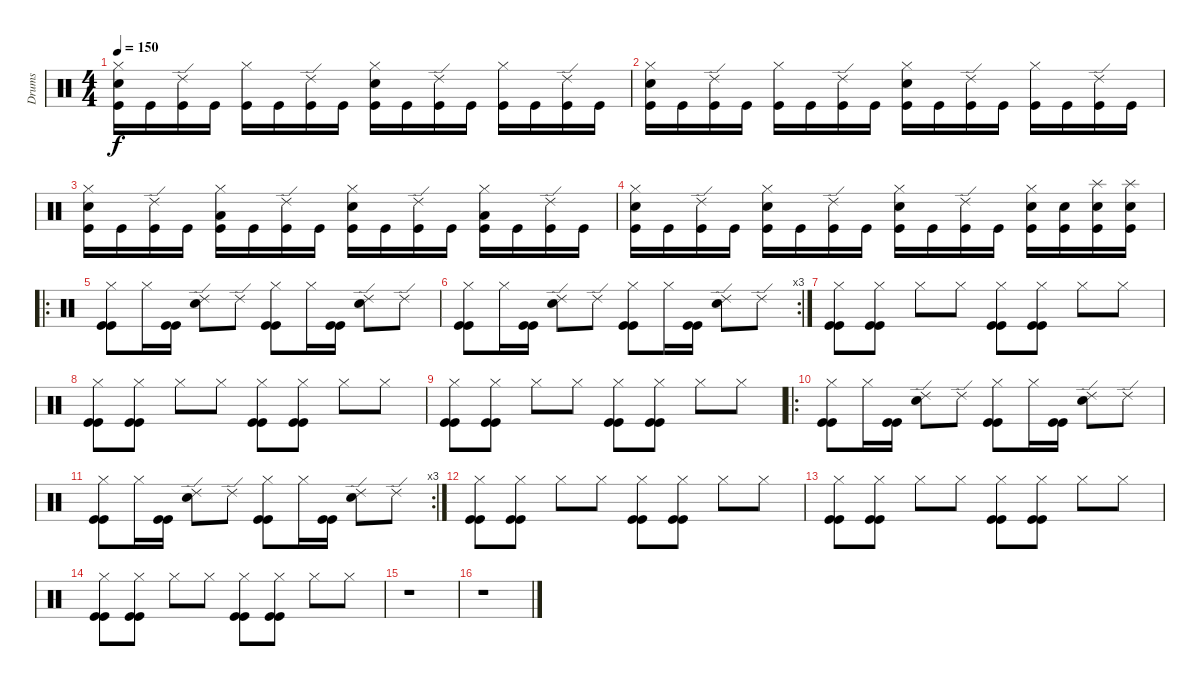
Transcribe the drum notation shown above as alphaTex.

\track ("Drums" "Drums") {instrument percussion}
\staff {score}
\articulation defaults
\ts (4 4)
\tempo 150
\clef neutral
\ks c
("Hi-Hat (closed)" "Snare (hit) 2" "Kick (hit)").16{dy f} "Kick (hit)".16 ("Ride (edge) 2" "Kick (hit)").16 "Kick (hit)".16 ("Hi-Hat (closed)" "Kick (hit)").16 "Kick (hit)".16 ("Ride (edge) 2" "Kick (hit)").16 "Kick (hit)".16 ("Hi-Hat (closed)" "Snare (hit) 2" "Kick (hit)").16 "Kick (hit)".16 ("Ride (edge) 2" "Kick (hit)").16 "Kick (hit)".16 ("Hi-Hat (closed)" "Kick (hit)").16 "Kick (hit)".16 ("Ride (edge) 2" "Kick (hit)").16 "Kick (hit)".16 |
("Hi-Hat (closed)" "Snare (hit) 2" "Kick (hit)").16 "Kick (hit)".16 ("Ride (edge) 2" "Kick (hit)").16 "Kick (hit)".16 ("Hi-Hat (closed)" "Kick (hit)").16 "Kick (hit)".16 ("Ride (edge) 2" "Kick (hit)").16 "Kick (hit)".16 ("Hi-Hat (closed)" "Snare (hit) 2" "Kick (hit)").16 "Kick (hit)".16 ("Ride (edge) 2" "Kick (hit)").16 "Kick (hit)".16 ("Hi-Hat (closed)" "Kick (hit)").16 "Kick (hit)".16 ("Ride (edge) 2" "Kick (hit)").16 "Kick (hit)".16 |
("Hi-Hat (closed)" "Snare (hit) 2" "Kick (hit)").16 "Kick (hit)".16 ("Ride (edge) 2" "Kick (hit)").16 "Kick (hit)".16 ("Hi-Hat (closed)" "Low Tom (hit)" "Kick (hit)").16 "Kick (hit)".16 ("Ride (edge) 2" "Kick (hit)").16 "Kick (hit)".16 ("Hi-Hat (closed)" "Snare (hit) 2" "Kick (hit)").16 "Kick (hit)".16 ("Ride (edge) 2" "Kick (hit)").16 "Kick (hit)".16 ("Hi-Hat (closed)" "Low Tom (hit)" "Kick (hit)").16 "Kick (hit)".16 ("Ride (edge) 2" "Kick (hit)").16 "Kick (hit)".16 |
("Hi-Hat (closed)" "Snare (hit) 2" "Kick (hit)").16 "Kick (hit)".16 ("Ride (edge) 2" "Kick (hit)").16 "Kick (hit)".16 ("Hi-Hat (closed)" "Snare (hit) 2" "Kick (hit)").16 "Kick (hit)".16 ("Ride (edge) 2" "Kick (hit)").16 "Kick (hit)".16 ("Hi-Hat (closed)" "Snare (hit) 2" "Kick (hit)").16 "Kick (hit)".16 ("Ride (edge) 2" "Kick (hit)").16 "Kick (hit)".16 ("Hi-Hat (closed)" "Snare (hit) 2" "Kick (hit)").16 ("Snare (hit) 2" "Kick (hit)").16 ("Splash (hit)" "Snare (hit) 2" "Kick (hit)").16 ("Splash (hit)" "Snare (hit) 2" "Kick (hit)").16 |
\ro
("Hi-Hat (closed)" "Kick (hit)" "Kick (hit)").8 "Hi-Hat (closed)".16 ("Kick (hit)" "Kick (hit)").16 ("Ride (edge) 2" "Snare (hit) 2").8 "Ride (edge) 2".8 ("Hi-Hat (closed)" "Kick (hit)" "Kick (hit)").8 "Hi-Hat (closed)".16 ("Kick (hit)" "Kick (hit)").16 ("Ride (edge) 2" "Snare (hit) 2").8 "Ride (edge) 2".8 |
\rc 3
("Hi-Hat (closed)" "Kick (hit)" "Kick (hit)").8 "Hi-Hat (closed)".16 ("Kick (hit)" "Kick (hit)").16 ("Ride (edge) 2" "Snare (hit) 2").8 "Ride (edge) 2".8 ("Hi-Hat (closed)" "Kick (hit)" "Kick (hit)").8 "Hi-Hat (closed)".16 ("Kick (hit)" "Kick (hit)").16 ("Ride (edge) 2" "Snare (hit) 2").8 "Ride (edge) 2".8 |
("Hi-Hat (closed)" "Kick (hit)" "Kick (hit)").8 ("Hi-Hat (closed)" "Kick (hit)" "Kick (hit)").8 "Hi-Hat (closed)".8 "Hi-Hat (closed)".8 ("Hi-Hat (closed)" "Kick (hit)" "Kick (hit)").8 ("Hi-Hat (closed)" "Kick (hit)" "Kick (hit)").8 "Hi-Hat (closed)".8 "Hi-Hat (closed)".8 |
("Hi-Hat (closed)" "Kick (hit)" "Kick (hit)").8 ("Hi-Hat (closed)" "Kick (hit)" "Kick (hit)").8 "Hi-Hat (closed)".8 "Hi-Hat (closed)".8 ("Hi-Hat (closed)" "Kick (hit)" "Kick (hit)").8 ("Hi-Hat (closed)" "Kick (hit)" "Kick (hit)").8 "Hi-Hat (closed)".8 "Hi-Hat (closed)".8 |
("Hi-Hat (closed)" "Kick (hit)" "Kick (hit)").8 ("Hi-Hat (closed)" "Kick (hit)" "Kick (hit)").8 "Hi-Hat (closed)".8 "Hi-Hat (closed)".8 ("Hi-Hat (closed)" "Kick (hit)" "Kick (hit)").8 ("Hi-Hat (closed)" "Kick (hit)" "Kick (hit)").8 "Hi-Hat (closed)".8 "Hi-Hat (closed)".8 |
\ro
("Hi-Hat (closed)" "Kick (hit)" "Kick (hit)").8 "Hi-Hat (closed)".16 ("Kick (hit)" "Kick (hit)").16 ("Ride (edge) 2" "Snare (hit) 2").8 "Ride (edge) 2".8 ("Hi-Hat (closed)" "Kick (hit)" "Kick (hit)").8 "Hi-Hat (closed)".16 ("Kick (hit)" "Kick (hit)").16 ("Ride (edge) 2" "Snare (hit) 2").8 "Ride (edge) 2".8 |
\rc 3
("Hi-Hat (closed)" "Kick (hit)" "Kick (hit)").8 "Hi-Hat (closed)".16 ("Kick (hit)" "Kick (hit)").16 ("Ride (edge) 2" "Snare (hit) 2").8 "Ride (edge) 2".8 ("Hi-Hat (closed)" "Kick (hit)" "Kick (hit)").8 "Hi-Hat (closed)".16 ("Kick (hit)" "Kick (hit)").16 ("Ride (edge) 2" "Snare (hit) 2").8 "Ride (edge) 2".8 |
("Hi-Hat (closed)" "Kick (hit)" "Kick (hit)").8 ("Hi-Hat (closed)" "Kick (hit)" "Kick (hit)").8 "Hi-Hat (closed)".8 "Hi-Hat (closed)".8 ("Hi-Hat (closed)" "Kick (hit)" "Kick (hit)").8 ("Hi-Hat (closed)" "Kick (hit)" "Kick (hit)").8 "Hi-Hat (closed)".8 "Hi-Hat (closed)".8 |
("Hi-Hat (closed)" "Kick (hit)" "Kick (hit)").8 ("Hi-Hat (closed)" "Kick (hit)" "Kick (hit)").8 "Hi-Hat (closed)".8 "Hi-Hat (closed)".8 ("Hi-Hat (closed)" "Kick (hit)" "Kick (hit)").8 ("Hi-Hat (closed)" "Kick (hit)" "Kick (hit)").8 "Hi-Hat (closed)".8 "Hi-Hat (closed)".8 |
("Hi-Hat (closed)" "Kick (hit)" "Kick (hit)").8 ("Hi-Hat (closed)" "Kick (hit)" "Kick (hit)").8 "Hi-Hat (closed)".8 "Hi-Hat (closed)".8 ("Hi-Hat (closed)" "Kick (hit)" "Kick (hit)").8 ("Hi-Hat (closed)" "Kick (hit)" "Kick (hit)").8 "Hi-Hat (closed)".8 "Hi-Hat (closed)".8 |
r.1 |
r.1
